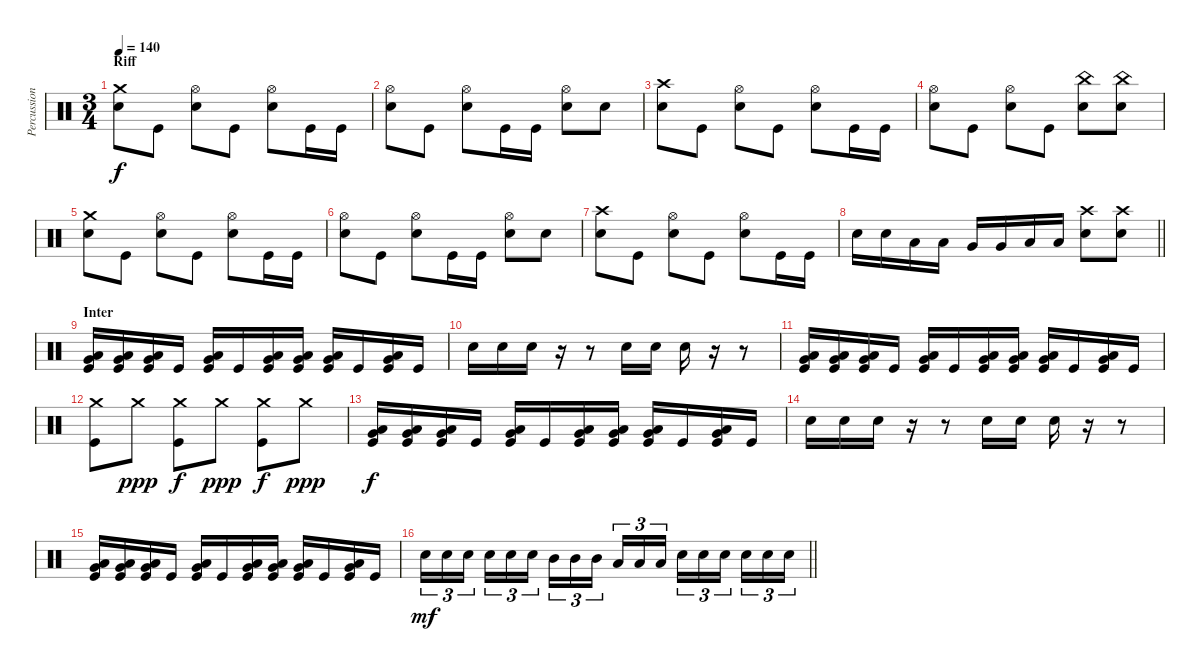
\track ("Percussion" "Percussion") {instrument percussion}
\staff {score}
\articulation defaults
\ts (3 4)
\section ("" "Riff")
\tempo 140
\clef neutral
\ks c
("Crash medium (hit)" "Electric Snare (hit)").8{dy f} "Kick (hit)".8 ("Hi-Hat (open)" "Electric Snare (hit)").8 "Kick (hit)".8 ("Hi-Hat (open)" "Electric Snare (hit)").8 "Kick (hit)".16 "Kick (hit)".16 |
("Hi-Hat (open)" "Electric Snare (hit)").8 "Kick (hit)".8 ("Hi-Hat (open)" "Electric Snare (hit)").8 "Kick (hit)".16 "Kick (hit)".16 ("Hi-Hat (open)" "Electric Snare (hit)").8 "Electric Snare (hit)".8 |
("Crash high (hit)" "Electric Snare (hit)").8 "Kick (hit)".8 ("Hi-Hat (open)" "Electric Snare (hit)").8 "Kick (hit)".8 ("Hi-Hat (open)" "Electric Snare (hit)").8 "Kick (hit)".16 "Kick (hit)".16 |
("Hi-Hat (open)" "Electric Snare (hit)").8 "Kick (hit)".8 ("Hi-Hat (open)" "Electric Snare (hit)").8 "Kick (hit)".8 ("China (hit)" "Electric Snare (hit)").8 ("China (hit)" "Electric Snare (hit)").8 |
("Crash medium (hit)" "Electric Snare (hit)").8 "Kick (hit)".8 ("Hi-Hat (open)" "Electric Snare (hit)").8 "Kick (hit)".8 ("Hi-Hat (open)" "Electric Snare (hit)").8 "Kick (hit)".16 "Kick (hit)".16 |
("Hi-Hat (open)" "Electric Snare (hit)").8 "Kick (hit)".8 ("Hi-Hat (open)" "Electric Snare (hit)").8 "Kick (hit)".16 "Kick (hit)".16 ("Hi-Hat (open)" "Electric Snare (hit)").8 "Electric Snare (hit)".8 |
("Crash high (hit)" "Electric Snare (hit)").8 "Kick (hit)".8 ("Hi-Hat (open)" "Electric Snare (hit)").8 "Kick (hit)".8 ("Hi-Hat (open)" "Electric Snare (hit)").8 "Kick (hit)".16 "Kick (hit)".16 |
\barLineRight lightlight "Electric Snare (hit)".16 "Electric Snare (hit)".16 "Low Tom (hit)".16 "Low Tom (hit)".16 "Very Low Tom (hit)".16 "Very Low Tom (hit)".16 "Low Floor Tom (hit)".16 "Low Floor Tom (hit)".16
("Crash high (hit)" "Electric Snare (hit)").8 ("Crash high (hit)" "Electric Snare (hit)").8 |
\section ("" "Inter")
("Low Tom (hit)" "Very Low Tom (hit)" "Kick (hit)").16 ("Low Tom (hit)" "Very Low Tom (hit)" "Kick (hit)").16 ("Low Tom (hit)" "Very Low Tom (hit)" "Kick (hit)").16 "Kick (hit)".16 ("Low Tom (hit)" "Very Low Tom (hit)" "Kick (hit)").16 "Kick (hit)".16 ("Low Tom (hit)" "Very Low Tom (hit)" "Kick (hit)").16 ("Low Tom (hit)" "Very Low Tom (hit)" "Kick (hit)").16 ("Low Tom (hit)" "Very Low Tom (hit)" "Kick (hit)").16 "Kick (hit)".16 ("Low Tom (hit)" "Very Low Tom (hit)" "Kick (hit)").16 "Kick (hit)".16 |
"Electric Snare (hit)".16 "Electric Snare (hit)".16 "Electric Snare (hit)".16 r.16 r.8 "Electric Snare (hit)".16 "Electric Snare (hit)".16 "Electric Snare (hit)".16 r.16 r.8 |
("Low Tom (hit)" "Very Low Tom (hit)" "Kick (hit)").16 ("Low Tom (hit)" "Very Low Tom (hit)" "Kick (hit)").16 ("Low Tom (hit)" "Very Low Tom (hit)" "Kick (hit)").16 "Kick (hit)".16 ("Low Tom (hit)" "Very Low Tom (hit)" "Kick (hit)").16 "Kick (hit)".16 ("Low Tom (hit)" "Very Low Tom (hit)" "Kick (hit)").16 ("Low Tom (hit)" "Very Low Tom (hit)" "Kick (hit)").16 ("Low Tom (hit)" "Very Low Tom (hit)" "Kick (hit)").16 "Kick (hit)".16 ("Low Tom (hit)" "Very Low Tom (hit)" "Kick (hit)").16 "Kick (hit)".16 |
("Crash medium (hit)" "Kick (hit)").8 "Crash medium (hit)".8{dy ppp} ("Crash medium (hit)" "Kick (hit)").8{dy f} "Crash medium (hit)".8{dy ppp} ("Crash medium (hit)" "Kick (hit)").8{dy f} "Crash medium (hit)".8{dy ppp} |
("Low Tom (hit)" "Very Low Tom (hit)" "Kick (hit)").16{dy f} ("Low Tom (hit)" "Very Low Tom (hit)" "Kick (hit)").16 ("Low Tom (hit)" "Very Low Tom (hit)" "Kick (hit)").16 "Kick (hit)".16 ("Low Tom (hit)" "Very Low Tom (hit)" "Kick (hit)").16 "Kick (hit)".16 ("Low Tom (hit)" "Very Low Tom (hit)" "Kick (hit)").16 ("Low Tom (hit)" "Very Low Tom (hit)" "Kick (hit)").16 ("Low Tom (hit)" "Very Low Tom (hit)" "Kick (hit)").16 "Kick (hit)".16 ("Low Tom (hit)" "Very Low Tom (hit)" "Kick (hit)").16 "Kick (hit)".16 |
"Electric Snare (hit)".16 "Electric Snare (hit)".16 "Electric Snare (hit)".16 r.16 r.8 "Electric Snare (hit)".16 "Electric Snare (hit)".16 "Electric Snare (hit)".16 r.16 r.8 |
("Low Tom (hit)" "Very Low Tom (hit)" "Kick (hit)").16 ("Low Tom (hit)" "Very Low Tom (hit)" "Kick (hit)").16 ("Low Tom (hit)" "Very Low Tom (hit)" "Kick (hit)").16 "Kick (hit)".16 ("Low Tom (hit)" "Very Low Tom (hit)" "Kick (hit)").16 "Kick (hit)".16 ("Low Tom (hit)" "Very Low Tom (hit)" "Kick (hit)").16 ("Low Tom (hit)" "Very Low Tom (hit)" "Kick (hit)").16 ("Low Tom (hit)" "Very Low Tom (hit)" "Kick (hit)").16 "Kick (hit)".16 ("Low Tom (hit)" "Very Low Tom (hit)" "Kick (hit)").16 "Kick (hit)".16 |
\barLineRight lightlight "Electric Snare (hit)".16{tu (3 2) dy mf} "Electric Snare (hit)".16{tu (3 2)} "Electric Snare (hit)".16{tu (3 2) beam splitsecondary} "Electric Snare (hit)".16{tu (3 2)} "Electric Snare (hit)".16{tu (3 2)} "Electric Snare (hit)".16{tu (3 2)} "Mid Tom (hit)".16{tu (3 2)} "Mid Tom (hit)".16{tu (3 2)} "Mid Tom (hit)".16{tu (3 2) beam splitsecondary} "Low Tom (hit)".16{tu (3 2)} "Low Tom (hit)".16{tu (3 2)} "Low Tom (hit)".16{tu (3 2)} "Electric Snare (hit)".16{tu (3 2)} "Electric Snare (hit)".16{tu (3 2)} "Electric Snare (hit)".16{tu (3 2) beam splitsecondary} "Electric Snare (hit)".16{tu (3 2)} "Electric Snare (hit)".16{tu (3 2)} "Electric Snare (hit)".16{tu (3 2)}
